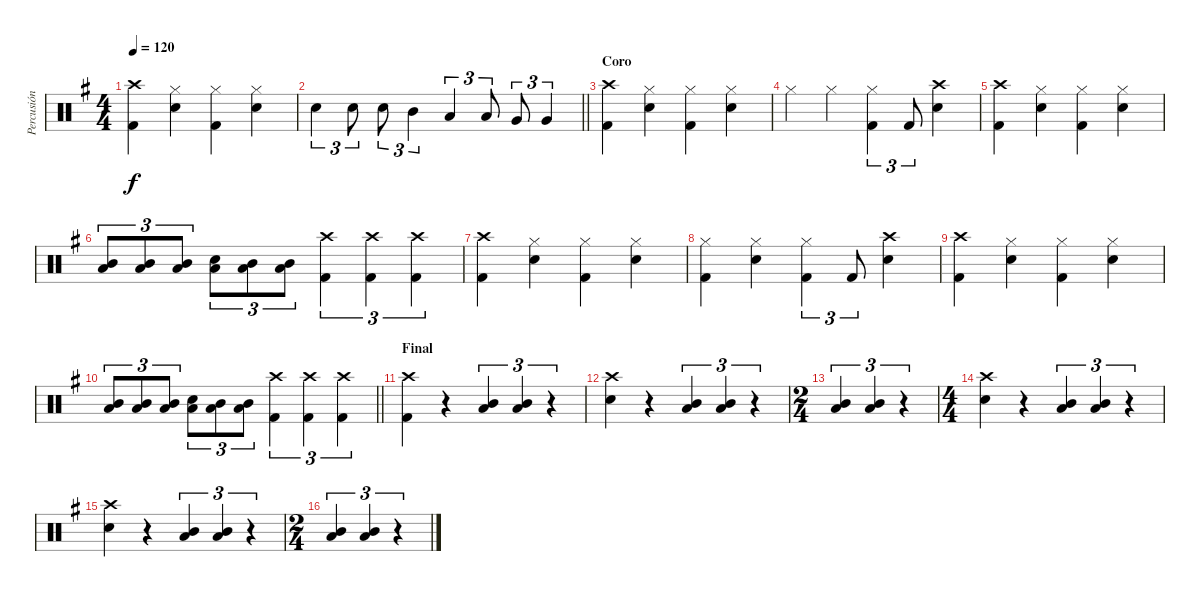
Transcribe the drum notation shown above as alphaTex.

\track ("Percusión" "Percusión") {instrument percussion}
\staff {score}
\articulation defaults
\ts (4 4)
\tempo 120
\clef neutral
\ks g
("Crash high (hit)" "Kick (hit) 2").4{dy f} ("Hi-Hat (closed)" "Snare (hit) 2").4 ("Hi-Hat (closed)" "Kick (hit) 2").4 ("Hi-Hat (closed)" "Snare (hit) 2").4 |
\barLineRight lightlight "Snare (hit) 2".4{tu (3 2)} "Snare (hit) 2".8{tu (3 2)} "Snare (hit) 2".8{tu (3 2)} "Mid Tom (hit)".4{tu (3 2)} "Low Tom (hit)".4{tu (3 2)} "Low Tom (hit)".8{tu (3 2)} "Very Low Tom (hit)".8{tu (3 2)} "Very Low Tom (hit)".4{tu (3 2)}
|
\section ("" "Coro")
("Crash high (hit)" "Kick (hit) 2").4 ("Hi-Hat (closed)" "Snare (hit) 2").4 ("Hi-Hat (closed)" "Kick (hit) 2").4 ("Hi-Hat (closed)" "Snare (hit) 2").4 |
"Hi-Hat (closed)".4 "Hi-Hat (closed)".4 ("Hi-Hat (closed)" "Kick (hit) 2").4{tu (3 2)} "Kick (hit) 2".8{tu (3 2)} ("Crash high (hit)" "Snare (hit) 2").4 |
("Crash high (hit)" "Kick (hit) 2").4 ("Hi-Hat (closed)" "Snare (hit) 2").4 ("Hi-Hat (closed)" "Kick (hit) 2").4 ("Hi-Hat (closed)" "Snare (hit) 2").4 |
("Low Tom (hit)" "Mid Tom (hit)").8{tu (3 2)} ("Low Tom (hit)" "Mid Tom (hit)").8{tu (3 2)} ("Low Tom (hit)" "Mid Tom (hit)").8{tu (3 2)} ("Low Tom (hit)" "Snare (hit) 2").8{tu (3 2)} ("Low Tom (hit)" "Mid Tom (hit)").8{tu (3 2)} ("Low Tom (hit)" "Mid Tom (hit)").8{tu (3 2)} ("Crash high (hit)" "Kick (hit) 2").4{tu (3 2)} ("Crash high (hit)" "Kick (hit) 2").4{tu (3 2)} ("Crash high (hit)" "Kick (hit) 2").4{tu (3 2)} |
("Crash high (hit)" "Kick (hit) 2").4 ("Hi-Hat (closed)" "Snare (hit) 2").4 ("Hi-Hat (closed)" "Kick (hit) 2").4 ("Hi-Hat (closed)" "Snare (hit) 2").4 |
("Hi-Hat (closed)" "Kick (hit) 2").4 ("Hi-Hat (closed)" "Snare (hit) 2").4 ("Hi-Hat (closed)" "Kick (hit) 2").4{tu (3 2)} "Kick (hit) 2".8{tu (3 2)} ("Crash high (hit)" "Snare (hit) 2").4 |
("Crash high (hit)" "Kick (hit) 2").4 ("Hi-Hat (closed)" "Snare (hit) 2").4 ("Hi-Hat (closed)" "Kick (hit) 2").4 ("Hi-Hat (closed)" "Snare (hit) 2").4 |
\barLineRight lightlight
("Low Tom (hit)" "Mid Tom (hit)").8{tu (3 2)} ("Low Tom (hit)" "Mid Tom (hit)").8{tu (3 2)} ("Low Tom (hit)" "Mid Tom (hit)").8{tu (3 2)} ("Low Tom (hit)" "Snare (hit) 2").8{tu (3 2)} ("Low Tom (hit)" "Mid Tom (hit)").8{tu (3 2)} ("Low Tom (hit)" "Mid Tom (hit)").8{tu (3 2)} ("Crash high (hit)" "Kick (hit) 2").4{tu (3 2)} ("Crash high (hit)" "Kick (hit) 2").4{tu (3 2)} ("Crash high (hit)" "Kick (hit) 2").4{tu (3 2)} |
\section ("" "Final")
("Crash high (hit)" "Kick (hit) 2").4 r.4 ("Mid Tom (hit)" "Low Tom (hit)").4{tu (3 2)} ("Mid Tom (hit)" "Low Tom (hit)").4{tu (3 2)} r.4{tu (3 2)} |
("Crash high (hit)" "Snare (hit) 2").4 r.4 ("Mid Tom (hit)" "Low Tom (hit)").4{tu (3 2)} ("Mid Tom (hit)" "Low Tom (hit)").4{tu (3 2)} r.4{tu (3 2)} |
\ts (2 4)
("Mid Tom (hit)" "Low Tom (hit)").4{tu (3 2)} ("Mid Tom (hit)" "Low Tom (hit)").4{tu (3 2)} r.4{tu (3 2)} |
\ts (4 4)
("Crash high (hit)" "Snare (hit) 2").4 r.4 ("Mid Tom (hit)" "Low Tom (hit)").4{tu (3 2)} ("Mid Tom (hit)" "Low Tom (hit)").4{tu (3 2)} r.4{tu (3 2)} |
("Crash high (hit)" "Snare (hit) 2").4 r.4 ("Mid Tom (hit)" "Low Tom (hit)").4{tu (3 2)} ("Mid Tom (hit)" "Low Tom (hit)").4{tu (3 2)} r.4{tu (3 2)} |
\ts (2 4)
("Mid Tom (hit)" "Low Tom (hit)").4{tu (3 2)} ("Mid Tom (hit)" "Low Tom (hit)").4{tu (3 2)} r.4{tu (3 2)}
